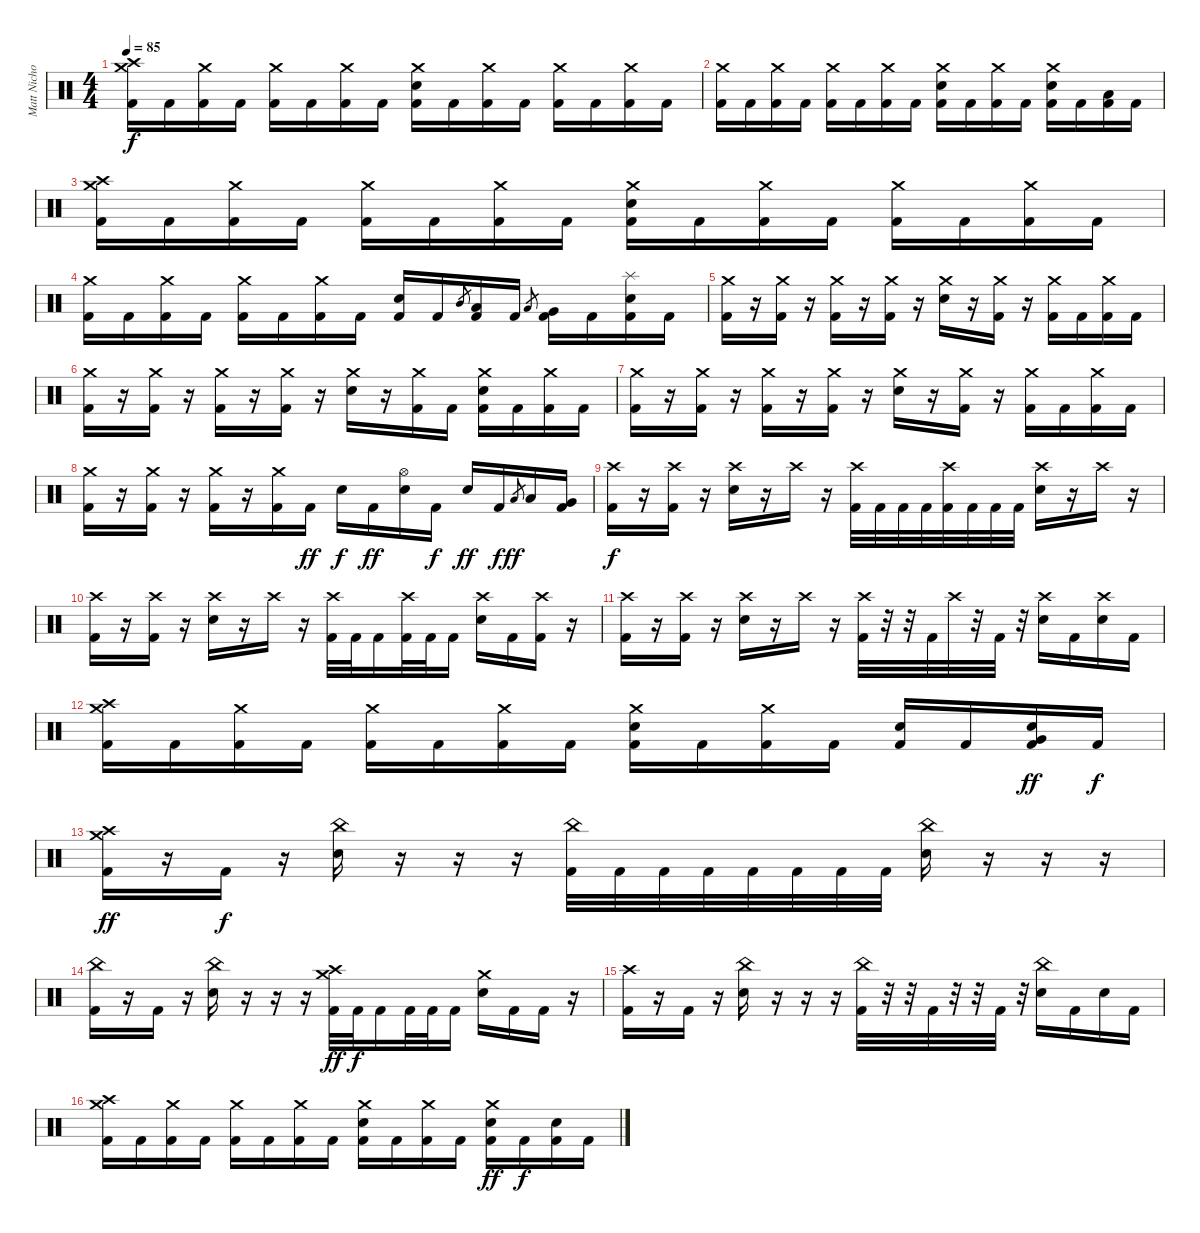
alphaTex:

\track ("Matt Nichols" "Matt Nicho") {instrument percussion}
\staff {score}
\articulation defaults
\ts (4 4)
\tempo 85
\clef neutral
\ks c
("Crash high (hit)" "Crash medium (hit)" "Kick (hit) 2").16{dy f} "Kick (hit) 2".16 ("Crash medium (hit)" "Kick (hit) 2").16 "Kick (hit) 2".16 ("Crash medium (hit)" "Kick (hit) 2").16 "Kick (hit) 2".16 ("Crash medium (hit)" "Kick (hit) 2").16 "Kick (hit) 2".16 ("Crash medium (hit)" "Electric Snare (hit)" "Kick (hit) 2").16 "Kick (hit) 2".16 ("Crash medium (hit)" "Kick (hit) 2").16 "Kick (hit) 2".16 ("Crash medium (hit)" "Kick (hit) 2").16 "Kick (hit) 2".16 ("Crash medium (hit)" "Kick (hit) 2").16 "Kick (hit) 2".16 |
("Crash medium (hit)" "Kick (hit) 2").16 "Kick (hit) 2".16 ("Crash medium (hit)" "Kick (hit) 2").16 "Kick (hit) 2".16 ("Crash medium (hit)" "Kick (hit) 2").16 "Kick (hit) 2".16 ("Crash medium (hit)" "Kick (hit) 2").16 "Kick (hit) 2".16 ("Crash medium (hit)" "Electric Snare (hit)" "Kick (hit) 2").16 "Kick (hit) 2".16 ("Crash medium (hit)" "Kick (hit) 2").16 "Kick (hit) 2".16 ("Crash medium (hit)" "Electric Snare (hit)" "Kick (hit) 2").16 "Kick (hit) 2".16 ("Low Tom (hit)" "Kick (hit) 2").16 "Kick (hit) 2".16 |
("Crash high (hit)" "Crash medium (hit)" "Kick (hit) 2").16 "Kick (hit) 2".16 ("Crash medium (hit)" "Kick (hit) 2").16 "Kick (hit) 2".16 ("Crash medium (hit)" "Kick (hit) 2").16 "Kick (hit) 2".16 ("Crash medium (hit)" "Kick (hit) 2").16 "Kick (hit) 2".16 ("Crash medium (hit)" "Electric Snare (hit)" "Kick (hit) 2").16 "Kick (hit) 2".16 ("Crash medium (hit)" "Kick (hit) 2").16 "Kick (hit) 2".16 ("Crash medium (hit)" "Kick (hit) 2").16 "Kick (hit) 2".16 ("Crash medium (hit)" "Kick (hit) 2").16 "Kick (hit) 2".16 |
("Crash medium (hit)" "Kick (hit) 2").16 "Kick (hit) 2".16 ("Crash medium (hit)" "Kick (hit) 2").16 "Kick (hit) 2".16 ("Crash medium (hit)" "Kick (hit) 2").16 "Kick (hit) 2".16 ("Crash medium (hit)" "Kick (hit) 2").16 "Kick (hit) 2".16 ("Electric Snare (hit)" "Kick (hit) 2").16 "Kick (hit) 2".16 "Mid Tom (hit)".8{gr} ("Low Tom (hit)" "Kick (hit) 2").16 "Kick (hit) 2".16 "Low Tom (hit)".8{gr} ("Very Low Tom (hit)" "Kick (hit) 2").16 "Kick (hit) 2".16 ("Splash (hit)" "Electric Snare (hit)" "Kick (hit) 2").16 "Kick (hit) 2".16 |
("Crash medium (hit)" "Kick (hit) 2").16 r.16 ("Crash medium (hit)" "Kick (hit) 2").16 r.16 ("Crash medium (hit)" "Kick (hit) 2").16 r.16 ("Crash medium (hit)" "Kick (hit) 2").16 r.16 ("Crash medium (hit)" "Electric Snare (hit)").16 r.16 ("Crash medium (hit)" "Kick (hit) 2").16 r.16 ("Crash medium (hit)" "Kick (hit) 2").16 "Kick (hit) 2".16 ("Crash medium (hit)" "Kick (hit) 2").16 "Kick (hit) 2".16 |
("Crash medium (hit)" "Kick (hit) 2").16 r.16 ("Crash medium (hit)" "Kick (hit) 2").16 r.16 ("Crash medium (hit)" "Kick (hit) 2").16 r.16 ("Crash medium (hit)" "Kick (hit) 2").16 r.16 ("Crash medium (hit)" "Electric Snare (hit)").16 r.16 ("Crash medium (hit)" "Kick (hit) 2").16 "Kick (hit) 2".16 ("Crash medium (hit)" "Electric Snare (hit)" "Kick (hit) 2").16 "Kick (hit) 2".16 ("Crash medium (hit)" "Kick (hit) 2").16 "Kick (hit) 2".16 |
("Crash medium (hit)" "Kick (hit) 2").16 r.16 ("Crash medium (hit)" "Kick (hit) 2").16 r.16 ("Crash medium (hit)" "Kick (hit) 2").16 r.16 ("Crash medium (hit)" "Kick (hit) 2").16 r.16 ("Crash medium (hit)" "Electric Snare (hit)").16 r.16 ("Crash medium (hit)" "Kick (hit) 2").16 r.16 ("Crash medium (hit)" "Kick (hit) 2").16 "Kick (hit) 2".16 ("Crash medium (hit)" "Kick (hit) 2").16 "Kick (hit) 2".16 |
("Crash medium (hit)" "Kick (hit) 2").16 r.16 ("Crash medium (hit)" "Kick (hit) 2").16 r.16 ("Crash medium (hit)" "Kick (hit) 2").16 r.16 ("Crash medium (hit)" "Kick (hit) 2").16 "Kick (hit) 2".16{dy ff} "Electric Snare (hit)".16{dy f} "Kick (hit) 2".16{dy ff} ("Hi-Hat (open)" "Electric Snare (hit)").16 "Kick (hit) 2".16{dy f} "Electric Snare (hit)".16{dy ff} "Kick (hit) 2".16{dy f} "Low Tom (hit)".8{gr dy ff} "Low Tom (hit)".16 ("Very Low Tom (hit)" "Kick (hit) 2").16 |
("Crash high (hit)" "Kick (hit) 2").16{dy f} r.16 ("Crash high (hit)" "Kick (hit) 2").16 r.16 ("Crash high (hit)" "Electric Snare (hit)").16 r.16 "Crash high (hit)".16 r.16 ("Crash high (hit)" "Kick (hit) 2").32 "Kick (hit) 2".32 "Kick (hit) 2".32 "Kick (hit) 2".32 ("Crash high (hit)" "Kick (hit) 2").32 "Kick (hit) 2".32 "Kick (hit) 2".32 "Kick (hit) 2".32 ("Crash high (hit)" "Electric Snare (hit)").16 r.16 "Crash high (hit)".16 r.16 |
("Crash high (hit)" "Kick (hit) 2").16 r.16 ("Crash high (hit)" "Kick (hit) 2").16 r.16 ("Crash high (hit)" "Electric Snare (hit)").16 r.16 "Crash high (hit)".16 r.16 ("Crash high (hit)" "Kick (hit) 2").32 "Kick (hit) 2".32 "Kick (hit) 2".16 ("Crash high (hit)" "Kick (hit) 2").32 "Kick (hit) 2".32 "Kick (hit) 2".16 ("Crash high (hit)" "Electric Snare (hit)").16 "Kick (hit) 2".16 ("Crash high (hit)" "Kick (hit) 2").16 r.16 |
("Crash high (hit)" "Kick (hit) 2").16 r.16 ("Crash high (hit)" "Kick (hit) 2").16 r.16 ("Crash high (hit)" "Electric Snare (hit)").16 r.16 "Crash high (hit)".16 r.16 ("Crash high (hit)" "Kick (hit) 2").32 r.32 r.32 "Kick (hit) 2".32 "Crash high (hit)".32 r.32 "Kick (hit) 2".32 r.32 ("Crash high (hit)" "Electric Snare (hit)").16 "Kick (hit) 2".16 ("Crash high (hit)" "Electric Snare (hit)").16 "Kick (hit) 2".16 |
("Crash high (hit)" "Crash medium (hit)" "Kick (hit) 2").16 "Kick (hit) 2".16 ("Crash medium (hit)" "Kick (hit) 2").16 "Kick (hit) 2".16 ("Crash medium (hit)" "Kick (hit) 2").16 "Kick (hit) 2".16 ("Crash medium (hit)" "Kick (hit) 2").16 "Kick (hit) 2".16 ("Crash medium (hit)" "Electric Snare (hit)" "Kick (hit) 2").16 "Kick (hit) 2".16 ("Crash medium (hit)" "Kick (hit) 2").16 "Kick (hit) 2".16 ("Electric Snare (hit)" "Kick (hit) 2").16 "Kick (hit) 2".16 ("Very Low Tom (hit)" "Electric Snare (hit)" "Kick (hit) 2").16{dy ff} "Kick (hit) 2".16{dy f} |
("Crash medium (hit)" "Crash high (hit)" "Kick (hit) 2").16{dy ff} r.16 "Kick (hit) 2".16{dy f} r.16 ("China (hit)" "Electric Snare (hit)").16 r.16 r.16 r.16 ("China (hit)" "Kick (hit) 2").32 "Kick (hit) 2".32 "Kick (hit) 2".32 "Kick (hit) 2".32 "Kick (hit) 2".32 "Kick (hit) 2".32 "Kick (hit) 2".32 "Kick (hit) 2".32 ("China (hit)" "Electric Snare (hit)").16 r.16 r.16 r.16 |
("China (hit)" "Kick (hit) 2").16 r.16 "Kick (hit) 2".16 r.16 ("China (hit)" "Electric Snare (hit)").16 r.16 r.16 r.16 ("Crash high (hit)" "Crash medium (hit)" "Kick (hit) 2").32{dy ff} "Kick (hit) 2".32{dy f} "Kick (hit) 2".16 "Kick (hit) 2".32 "Kick (hit) 2".32 "Kick (hit) 2".16 ("Crash medium (hit)" "Electric Snare (hit)").16 "Kick (hit) 2".16 "Kick (hit) 2".16 r.16 |
("Crash high (hit)" "Kick (hit) 2").16 r.16 "Kick (hit) 2".16 r.16 ("China (hit)" "Electric Snare (hit)").16 r.16 r.16 r.16 ("China (hit)" "Kick (hit) 2").32 r.32 r.32 "Kick (hit) 2".32 r.32 r.32 "Kick (hit) 2".32 r.32 ("China (hit)" "Electric Snare (hit)").16 "Kick (hit) 2".16 "Electric Snare (hit)".16 "Kick (hit) 2".16 |
("Crash high (hit)" "Crash medium (hit)" "Kick (hit) 2").16 "Kick (hit) 2".16 ("Crash medium (hit)" "Kick (hit) 2").16 "Kick (hit) 2".16 ("Crash medium (hit)" "Kick (hit) 2").16 "Kick (hit) 2".16 ("Crash medium (hit)" "Kick (hit) 2").16 "Kick (hit) 2".16 ("Crash medium (hit)" "Electric Snare (hit)" "Kick (hit) 2").16 "Kick (hit) 2".16 ("Crash medium (hit)" "Kick (hit) 2").16 "Kick (hit) 2".16 ("Crash medium (hit)" "Electric Snare (hit)" "Kick (hit) 2").16{dy ff} "Kick (hit) 2".16{dy f} ("Electric Snare (hit)" "Kick (hit) 2").16 "Kick (hit) 2".16
